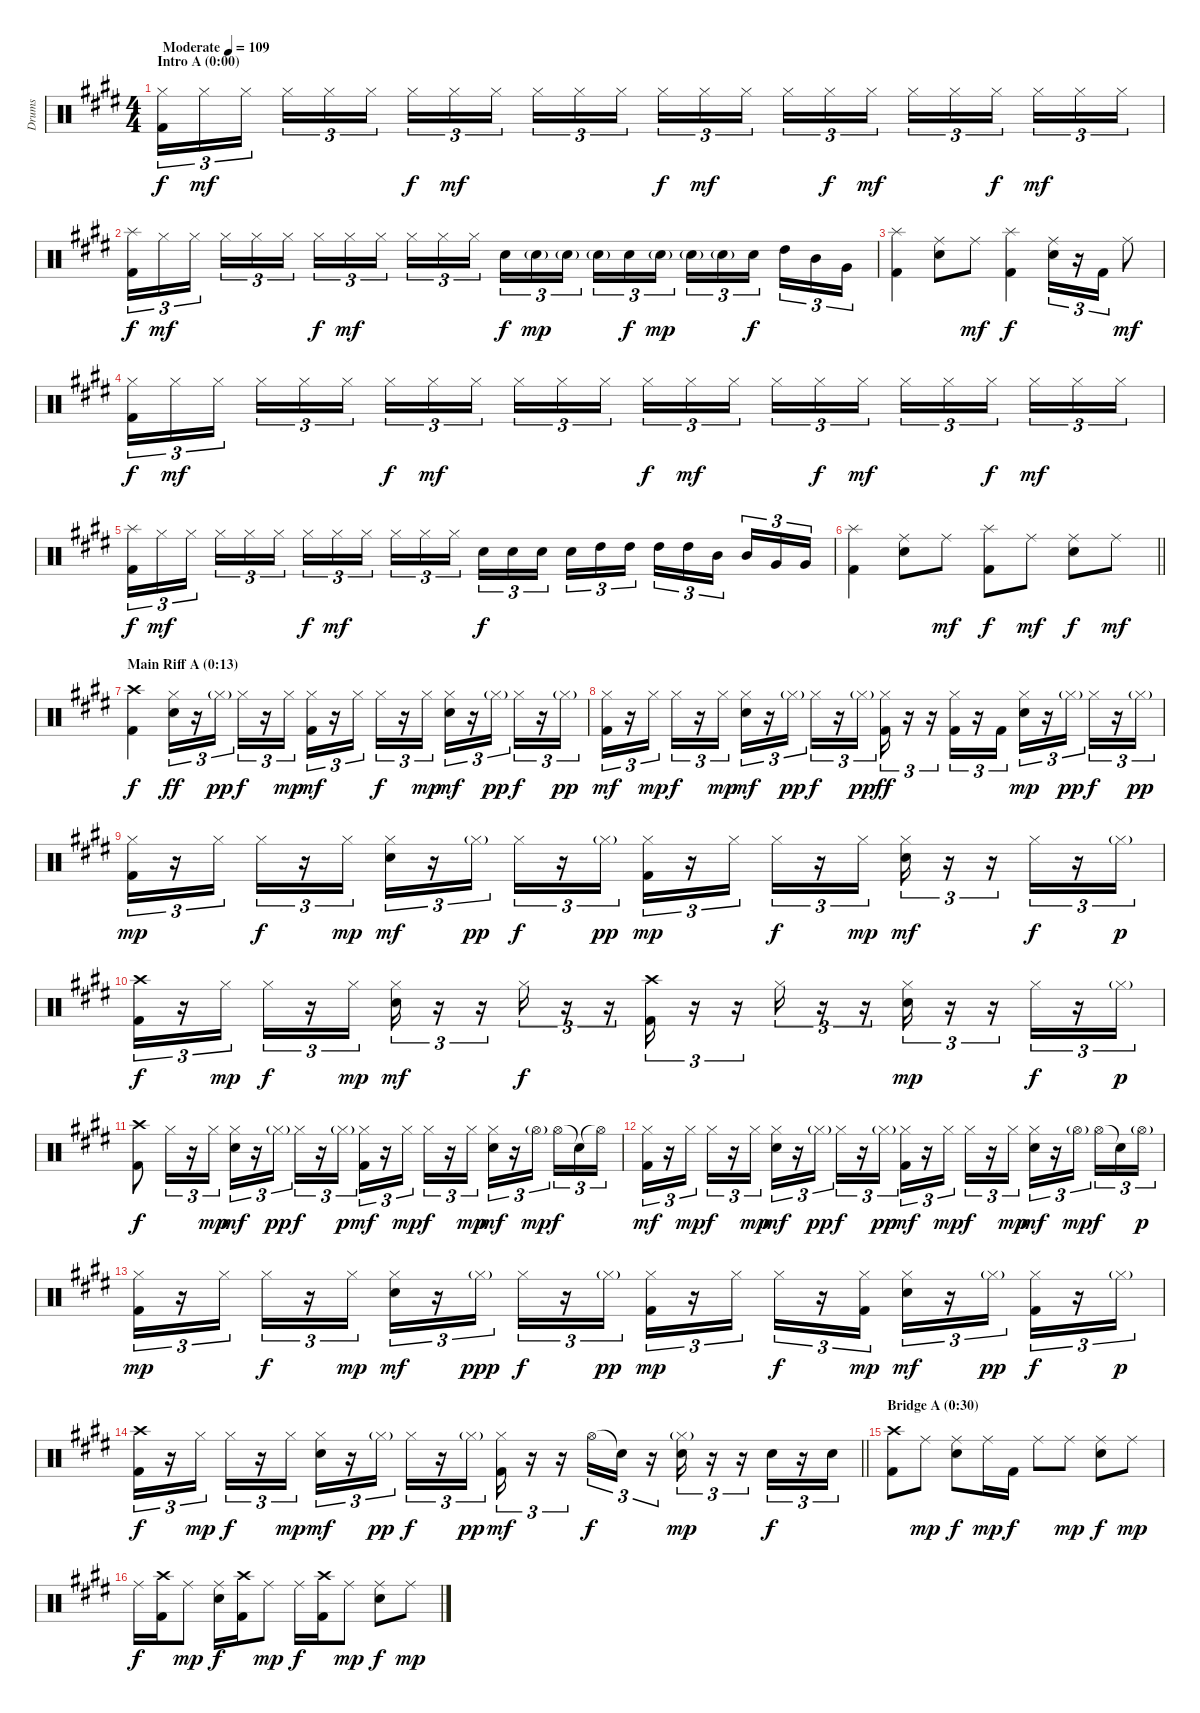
\track ("Drums" "Drums") {instrument percussion}
\staff {score}
\articulation defaults
\ts (4 4)
\section ("" "Intro A (0:00)")
\tempo (109 "Moderate")
\clef neutral
\ks e
("Hi-Hat (closed)" "Kick (hit) 2").16{tu (3 2) dy f} "Hi-Hat (closed)".16{tu (3 2) dy mf} "Hi-Hat (closed)".16{tu (3 2) beam splitsecondary} "Hi-Hat (closed)".16{tu (3 2)} "Hi-Hat (closed)".16{tu (3 2)} "Hi-Hat (closed)".16{tu (3 2)} "Hi-Hat (closed)".16{tu (3 2) dy f} "Hi-Hat (closed)".16{tu (3 2) dy mf} "Hi-Hat (closed)".16{tu (3 2) beam splitsecondary} "Hi-Hat (closed)".16{tu (3 2)} "Hi-Hat (closed)".16{tu (3 2)} "Hi-Hat (closed)".16{tu (3 2)} "Hi-Hat (closed)".16{tu (3 2) dy f} "Hi-Hat (closed)".16{tu (3 2) dy mf} "Hi-Hat (closed)".16{tu (3 2) beam splitsecondary} "Hi-Hat (closed)".16{tu (3 2)} "Hi-Hat (closed)".16{tu (3 2) dy f} "Hi-Hat (closed)".16{tu (3 2) dy mf} "Hi-Hat (closed)".16{tu (3 2)} "Hi-Hat (closed)".16{tu (3 2)} "Hi-Hat (closed)".16{tu (3 2) dy f beam splitsecondary} "Hi-Hat (closed)".16{tu (3 2) dy mf} "Hi-Hat (closed)".16{tu (3 2)} "Hi-Hat (closed)".16{tu (3 2)} |
("Splash (hit)" "Kick (hit) 2").16{tu (3 2) dy f} "Hi-Hat (closed)".16{tu (3 2) dy mf} "Hi-Hat (closed)".16{tu (3 2) beam splitsecondary} "Hi-Hat (closed)".16{tu (3 2)} "Hi-Hat (closed)".16{tu (3 2)} "Hi-Hat (closed)".16{tu (3 2)} "Hi-Hat (closed)".16{tu (3 2) dy f} "Hi-Hat (closed)".16{tu (3 2) dy mf} "Hi-Hat (closed)".16{tu (3 2) beam splitsecondary} "Hi-Hat (closed)".16{tu (3 2)} "Hi-Hat (closed)".16{tu (3 2)} "Hi-Hat (closed)".16{tu (3 2)} "Electric Snare (hit)".16{tu (3 2) dy f} "Electric Snare (hit)"{g}.16{tu (3 2) dy mp} "Electric Snare (hit)"{g}.16{tu (3 2) beam splitsecondary} "Electric Snare (hit)"{g}.16{tu (3 2)} "Electric Snare (hit)".16{tu (3 2) dy f} "Electric Snare (hit)"{g}.16{tu (3 2) dy mp} "Electric Snare (hit)"{g}.16{tu (3 2)} "Electric Snare (hit)"{g}.16{tu (3 2)} "Electric Snare (hit)".16{tu (3 2) dy f beam splitsecondary} "High Tom (hit)".16{tu (3 2)} "Mid Tom (hit)".16{tu (3 2)} "Very Low Tom (hit)".16{tu (3 2)} |
("Splash (hit)" "Kick (hit) 2").4 ("Ride (middle)" "Electric Snare (hit)").8 "Ride (middle)".8{dy mf} ("Splash (hit)" "Kick (hit) 2").4{dy f} ("Ride (middle)" "Electric Snare (hit)").16{tu (3 2)} r.16{tu (3 2)} "Kick (hit) 2".16{tu (3 2)} "Ride (middle)".8{dy mf} |
("Hi-Hat (closed)" "Kick (hit) 2").16{tu (3 2) dy f} "Hi-Hat (closed)".16{tu (3 2) dy mf} "Hi-Hat (closed)".16{tu (3 2) beam splitsecondary} "Hi-Hat (closed)".16{tu (3 2)} "Hi-Hat (closed)".16{tu (3 2)} "Hi-Hat (closed)".16{tu (3 2)} "Hi-Hat (closed)".16{tu (3 2) dy f} "Hi-Hat (closed)".16{tu (3 2) dy mf} "Hi-Hat (closed)".16{tu (3 2) beam splitsecondary} "Hi-Hat (closed)".16{tu (3 2)} "Hi-Hat (closed)".16{tu (3 2)} "Hi-Hat (closed)".16{tu (3 2)} "Hi-Hat (closed)".16{tu (3 2) dy f} "Hi-Hat (closed)".16{tu (3 2) dy mf} "Hi-Hat (closed)".16{tu (3 2) beam splitsecondary} "Hi-Hat (closed)".16{tu (3 2)} "Hi-Hat (closed)".16{tu (3 2) dy f} "Hi-Hat (closed)".16{tu (3 2) dy mf} "Hi-Hat (closed)".16{tu (3 2)} "Hi-Hat (closed)".16{tu (3 2)} "Hi-Hat (closed)".16{tu (3 2) dy f beam splitsecondary} "Hi-Hat (closed)".16{tu (3 2) dy mf} "Hi-Hat (closed)".16{tu (3 2)} "Hi-Hat (closed)".16{tu (3 2)} |
("Splash (hit)" "Kick (hit) 2").16{tu (3 2) dy f} "Hi-Hat (closed)".16{tu (3 2) dy mf} "Hi-Hat (closed)".16{tu (3 2) beam splitsecondary} "Hi-Hat (closed)".16{tu (3 2)} "Hi-Hat (closed)".16{tu (3 2)} "Hi-Hat (closed)".16{tu (3 2)} "Hi-Hat (closed)".16{tu (3 2) dy f} "Hi-Hat (closed)".16{tu (3 2) dy mf} "Hi-Hat (closed)".16{tu (3 2) beam splitsecondary} "Hi-Hat (closed)".16{tu (3 2)} "Hi-Hat (closed)".16{tu (3 2)} "Hi-Hat (closed)".16{tu (3 2)} "Electric Snare (hit)".16{tu (3 2) dy f} "Electric Snare (hit)".16{tu (3 2)} "Electric Snare (hit)".16{tu (3 2) beam splitsecondary} "Electric Snare (hit)".16{tu (3 2)} "High Tom (hit)".16{tu (3 2)} "High Tom (hit)".16{tu (3 2)} "High Tom (hit)".16{tu (3 2)} "High Tom (hit)".16{tu (3 2)} "Mid Tom (hit)".16{tu (3 2) beam splitsecondary} "Mid Tom (hit)".16{tu (3 2)} "Very Low Tom (hit)".16{tu (3 2)} "Very Low Tom (hit)".16{tu (3 2)} |
\barLineRight lightlight
("Splash (hit)" "Kick (hit) 2").4 ("Ride (middle)" "Electric Snare (hit)").8 "Ride (middle)".8{dy mf} ("Splash (hit)" "Kick (hit) 2").8{dy f} "Ride (middle)".8{dy mf} ("Ride (middle)" "Electric Snare (hit)").8{dy f} "Ride (middle)".8{dy mf} |
\section ("" "Main Riff A (0:13)")
("Crash high (hit)" "Kick (hit) 2").4{dy f} ("Hi-Hat (closed)" "Electric Snare (hit)").16{tu (3 2) dy ff} r.16{tu (3 2)} "Hi-Hat (closed)"{g}.16{tu (3 2) dy pp} "Hi-Hat (closed)".16{tu (3 2) dy f} r.16{tu (3 2)} "Hi-Hat (closed)".16{tu (3 2) dy mp} ("Hi-Hat (closed)" "Kick (hit) 2").16{tu (3 2) dy mf} r.16{tu (3 2)} "Hi-Hat (closed)".16{tu (3 2)} "Hi-Hat (closed)".16{tu (3 2) dy f} r.16{tu (3 2)} "Hi-Hat (closed)".16{tu (3 2) dy mp} ("Hi-Hat (closed)" "Electric Snare (hit)").16{tu (3 2) dy mf} r.16{tu (3 2)} "Hi-Hat (closed)"{g}.16{tu (3 2) dy pp} "Hi-Hat (closed)".16{tu (3 2) dy f} r.16{tu (3 2)} "Hi-Hat (closed)"{g}.16{tu (3 2) dy pp} |
("Hi-Hat (closed)" "Kick (hit) 2").16{tu (3 2) dy mf} r.16{tu (3 2)} "Hi-Hat (closed)".16{tu (3 2) dy mp} "Hi-Hat (closed)".16{tu (3 2) dy f} r.16{tu (3 2)} "Hi-Hat (closed)".16{tu (3 2) dy mp} ("Hi-Hat (closed)" "Electric Snare (hit)").16{tu (3 2) dy mf} r.16{tu (3 2)} "Hi-Hat (closed)"{g}.16{tu (3 2) dy pp} "Hi-Hat (closed)".16{tu (3 2) dy f} r.16{tu (3 2)} "Hi-Hat (closed)"{g}.16{tu (3 2) dy pp} ("Hi-Hat (closed)" "Kick (hit) 2").16{tu (3 2) dy ff} r.16{tu (3 2)} r.16{tu (3 2)} ("Hi-Hat (closed)" "Kick (hit) 2").16{tu (3 2)} r.16{tu (3 2)} "Kick (hit) 2".16{tu (3 2)} ("Hi-Hat (closed)" "Electric Snare (hit)").16{tu (3 2) dy mp} r.16{tu (3 2)} "Hi-Hat (closed)"{g}.16{tu (3 2) dy pp} "Hi-Hat (closed)".16{tu (3 2) dy f} r.16{tu (3 2)} "Hi-Hat (closed)"{g}.16{tu (3 2) dy pp} |
("Hi-Hat (closed)" "Kick (hit) 2").16{tu (3 2) dy mp} r.16{tu (3 2)} "Hi-Hat (closed)".16{tu (3 2)} "Hi-Hat (closed)".16{tu (3 2) dy f} r.16{tu (3 2)} "Hi-Hat (closed)".16{tu (3 2) dy mp} ("Hi-Hat (closed)" "Electric Snare (hit)").16{tu (3 2) dy mf} r.16{tu (3 2)} "Hi-Hat (closed)"{g}.16{tu (3 2) dy pp} "Hi-Hat (closed)".16{tu (3 2) dy f} r.16{tu (3 2)} "Hi-Hat (closed)"{g}.16{tu (3 2) dy pp} ("Hi-Hat (closed)" "Kick (hit) 2").16{tu (3 2) dy mp} r.16{tu (3 2)} "Hi-Hat (closed)".16{tu (3 2)} "Hi-Hat (closed)".16{tu (3 2) dy f} r.16{tu (3 2)} "Hi-Hat (closed)".16{tu (3 2) dy mp} ("Hi-Hat (closed)" "Electric Snare (hit)").16{tu (3 2) dy mf} r.16{tu (3 2)} r.16{tu (3 2)} "Hi-Hat (closed)".16{tu (3 2) dy f} r.16{tu (3 2)} "Hi-Hat (closed)"{g}.16{tu (3 2) dy p} |
("Crash high (hit)" "Kick (hit) 2").16{tu (3 2) dy f} r.16{tu (3 2)} "Hi-Hat (closed)".16{tu (3 2) dy mp} "Hi-Hat (closed)".16{tu (3 2) dy f} r.16{tu (3 2)} "Hi-Hat (closed)".16{tu (3 2) dy mp} ("Hi-Hat (closed)" "Electric Snare (hit)").16{tu (3 2) dy mf} r.16{tu (3 2)} r.16{tu (3 2)} "Hi-Hat (closed)".16{tu (3 2) dy f} r.16{tu (3 2)} r.16{tu (3 2)} ("Crash high (hit)" "Kick (hit) 2").16{tu (3 2)} r.16{tu (3 2)} r.16{tu (3 2)} "Hi-Hat (closed)".16{tu (3 2)} r.16{tu (3 2)} r.16{tu (3 2)} ("Hi-Hat (closed)" "Electric Snare (hit)").16{tu (3 2) dy mp} r.16{tu (3 2)} r.16{tu (3 2)} "Hi-Hat (closed)".16{tu (3 2) dy f} r.16{tu (3 2)} "Hi-Hat (closed)"{g}.16{tu (3 2) dy p} |
("Crash high (hit)" "Kick (hit) 2").8{dy f} "Hi-Hat (closed)".16{tu (3 2)} r.16{tu (3 2)} "Hi-Hat (closed)".16{tu (3 2) dy mp} ("Hi-Hat (closed)" "Electric Snare (hit)").16{tu (3 2) dy mf} r.16{tu (3 2)} "Hi-Hat (closed)"{g}.16{tu (3 2) dy pp} "Hi-Hat (closed)".16{tu (3 2) dy f} r.16{tu (3 2)} "Hi-Hat (closed)"{g}.16{tu (3 2) dy p} ("Hi-Hat (closed)" "Kick (hit) 2").16{tu (3 2) dy mf} r.16{tu (3 2)} "Hi-Hat (closed)".16{tu (3 2) dy mp} "Hi-Hat (closed)".16{tu (3 2) dy f} r.16{tu (3 2)} "Hi-Hat (closed)".16{tu (3 2) dy mp} ("Hi-Hat (closed)" "Electric Snare (hit)").16{tu (3 2) dy mf} r.16{tu (3 2)} "Hi-Hat (open)"{g}.16{tu (3 2) dy mp beam splitsecondary} "Hi-Hat (open)".16{tu (3 2) dy f} "Snare (hit)"{t}.16{tu (3 2)} "Hi-Hat (open)"{t}.16{tu (3 2)} |
("Hi-Hat (closed)" "Kick (hit) 2").16{tu (3 2) dy mf} r.16{tu (3 2)} "Hi-Hat (closed)".16{tu (3 2) dy mp} "Hi-Hat (closed)".16{tu (3 2) dy f} r.16{tu (3 2)} "Hi-Hat (closed)".16{tu (3 2) dy mp} ("Hi-Hat (closed)" "Electric Snare (hit)").16{tu (3 2) dy mf} r.16{tu (3 2)} "Hi-Hat (closed)"{g}.16{tu (3 2) dy pp} "Hi-Hat (closed)".16{tu (3 2) dy f} r.16{tu (3 2)} "Hi-Hat (closed)"{g}.16{tu (3 2) dy pp} ("Hi-Hat (closed)" "Kick (hit) 2").16{tu (3 2) dy mf} r.16{tu (3 2)} "Hi-Hat (closed)".16{tu (3 2) dy mp} "Hi-Hat (closed)".16{tu (3 2) dy f} r.16{tu (3 2)} "Hi-Hat (closed)".16{tu (3 2) dy mp} ("Hi-Hat (closed)" "Electric Snare (hit)").16{tu (3 2) dy mf} r.16{tu (3 2)} "Hi-Hat (open)"{g}.16{tu (3 2) dy mp beam splitsecondary} "Hi-Hat (open)".16{tu (3 2) dy f} "Snare (hit)"{t}.16{tu (3 2)} "Hi-Hat (open)"{g}.16{tu (3 2) dy p} |
("Hi-Hat (closed)" "Kick (hit) 2").16{tu (3 2) dy mp} r.16{tu (3 2)} "Hi-Hat (closed)".16{tu (3 2)} "Hi-Hat (closed)".16{tu (3 2) dy f} r.16{tu (3 2)} "Hi-Hat (closed)".16{tu (3 2) dy mp} ("Hi-Hat (closed)" "Electric Snare (hit)").16{tu (3 2) dy mf} r.16{tu (3 2)} "Hi-Hat (closed)"{g}.16{tu (3 2) dy ppp} "Hi-Hat (closed)".16{tu (3 2) dy f} r.16{tu (3 2)} "Hi-Hat (closed)"{g}.16{tu (3 2) dy pp} ("Hi-Hat (closed)" "Kick (hit) 2").16{tu (3 2) dy mp} r.16{tu (3 2)} "Hi-Hat (closed)".16{tu (3 2)} "Hi-Hat (closed)".16{tu (3 2) dy f} r.16{tu (3 2)} ("Hi-Hat (closed)" "Kick (hit) 2").16{tu (3 2) dy mp} ("Hi-Hat (closed)" "Electric Snare (hit)").16{tu (3 2) dy mf} r.16{tu (3 2)} "Hi-Hat (closed)"{g}.16{tu (3 2) dy pp} ("Hi-Hat (closed)" "Kick (hit) 2").16{tu (3 2) dy f} r.16{tu (3 2)} "Hi-Hat (closed)"{g}.16{tu (3 2) dy p} |
\barLineRight lightlight
("Crash high (hit)" "Kick (hit) 2").16{tu (3 2) dy f} r.16{tu (3 2)} "Hi-Hat (closed)".16{tu (3 2) dy mp} "Hi-Hat (closed)".16{tu (3 2) dy f} r.16{tu (3 2)} "Hi-Hat (closed)".16{tu (3 2) dy mp} ("Hi-Hat (closed)" "Electric Snare (hit)").16{tu (3 2) dy mf} r.16{tu (3 2)} "Hi-Hat (closed)"{g}.16{tu (3 2) dy pp} "Hi-Hat (closed)".16{tu (3 2) dy f} r.16{tu (3 2)} "Hi-Hat (closed)"{g}.16{tu (3 2) dy pp} ("Hi-Hat (closed)" "Kick (hit) 2").16{tu (3 2) dy mf} r.16{tu (3 2)} r.16{tu (3 2)} "Hi-Hat (open)".16{tu (3 2) dy f} "Snare (hit)"{t}.16{tu (3 2)} r.16{tu (3 2)} ("Hi-Hat (closed)"{g} "Electric Snare (hit)").16{tu (3 2) dy mp} r.16{tu (3 2)} r.16{tu (3 2)} "Electric Snare (hit)".16{tu (3 2) dy f} r.16{tu (3 2)} "Electric Snare (hit)".16{tu (3 2)} |
\section ("" "Bridge A (0:30)")
("Crash high (hit)" "Kick (hit) 2").8 "Ride (middle)".8{dy mp} ("Ride (middle)" "Electric Snare (hit)").8{dy f} "Ride (middle)".16{dy mp} "Kick (hit) 2".16{dy f} "Ride (middle)".8 "Ride (middle)".8{dy mp} ("Ride (middle)" "Electric Snare (hit)").8{dy f} "Ride (middle)".8{dy mp} |
"Ride (middle)".16{dy f} ("Crash high (hit)" "Kick (hit) 2").16 "Ride (middle)".8{dy mp} ("Ride (middle)" "Electric Snare (hit)").16{dy f} ("Crash high (hit)" "Kick (hit) 2").16 "Ride (middle)".8{dy mp} "Ride (middle)".16{dy f} ("Crash high (hit)" "Kick (hit) 2").16 "Ride (middle)".8{dy mp} ("Ride (middle)" "Electric Snare (hit)").8{dy f} "Ride (middle)".8{dy mp}
